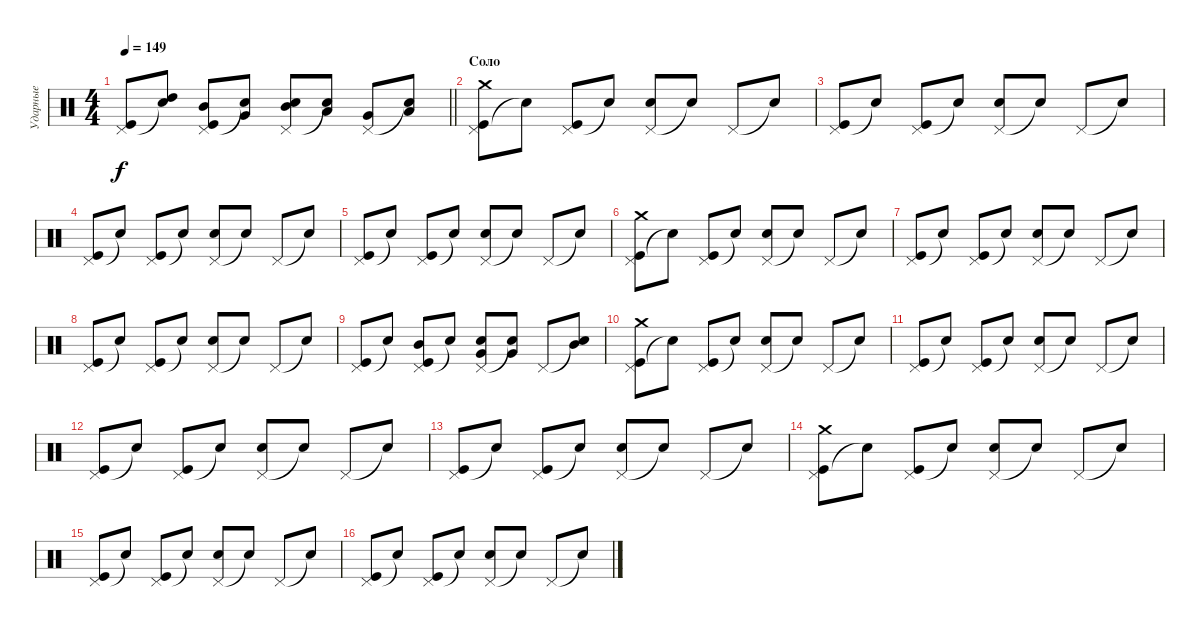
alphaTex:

\track ("Ударные" "Ударные") {instrument percussion}
\staff {score}
\articulation defaults
\ts (4 4)
\tempo 149
\clef neutral
\barLineRight lightlight
\ks c
("Pedal Hi-Hat (hit)" "Kick (hit)").8{dy f} ("Snare (hit)"{t} "High Tom (hit)").8 ("Pedal Hi-Hat (hit)" "Kick (hit)" "Mid Tom (hit)").8 ("Snare (hit)"{t} "Very Low Tom (hit)").8 ("Pedal Hi-Hat (hit)" "Snare (hit) 2" "Mid Tom (hit)").8 ("Snare (hit)"{t} "Low Tom (hit)").8 ("Pedal Hi-Hat (hit)" "Very Low Tom (hit)").8 ("Snare (hit)"{t} "Low Floor Tom (hit)").8 |
\section ("" "Соло")
("Pedal Hi-Hat (hit)" "Kick (hit)" "Crash medium (hit)").8 "Snare (hit)"{t}.8 ("Pedal Hi-Hat (hit)" "Kick (hit)").8 "Snare (hit)"{t}.8 ("Pedal Hi-Hat (hit)" "Snare (hit) 2").8 "Snare (hit)"{t}.8 "Pedal Hi-Hat (hit)".8 "Snare (hit)"{t}.8 |
("Pedal Hi-Hat (hit)" "Kick (hit)").8 "Snare (hit)"{t}.8 ("Pedal Hi-Hat (hit)" "Kick (hit)").8 "Snare (hit)"{t}.8 ("Pedal Hi-Hat (hit)" "Snare (hit) 2").8 "Snare (hit)"{t}.8 "Pedal Hi-Hat (hit)".8 "Snare (hit)"{t}.8 |
("Pedal Hi-Hat (hit)" "Kick (hit)").8 "Snare (hit)"{t}.8 ("Pedal Hi-Hat (hit)" "Kick (hit)").8 "Snare (hit)"{t}.8 ("Pedal Hi-Hat (hit)" "Snare (hit) 2").8 "Snare (hit)"{t}.8 "Pedal Hi-Hat (hit)".8 "Snare (hit)"{t}.8 |
("Pedal Hi-Hat (hit)" "Kick (hit)").8 "Snare (hit)"{t}.8 ("Pedal Hi-Hat (hit)" "Kick (hit)").8 "Snare (hit)"{t}.8 ("Pedal Hi-Hat (hit)" "Snare (hit) 2").8 "Snare (hit)"{t}.8 "Pedal Hi-Hat (hit)".8 "Snare (hit)"{t}.8 |
("Pedal Hi-Hat (hit)" "Kick (hit)" "Crash medium (hit)").8 "Snare (hit)"{t}.8 ("Pedal Hi-Hat (hit)" "Kick (hit)").8 "Snare (hit)"{t}.8 ("Pedal Hi-Hat (hit)" "Snare (hit) 2").8 "Snare (hit)"{t}.8 "Pedal Hi-Hat (hit)".8 "Snare (hit)"{t}.8 |
("Pedal Hi-Hat (hit)" "Kick (hit)").8 "Snare (hit)"{t}.8 ("Pedal Hi-Hat (hit)" "Kick (hit)").8 "Snare (hit)"{t}.8 ("Pedal Hi-Hat (hit)" "Snare (hit) 2").8 "Snare (hit)"{t}.8 "Pedal Hi-Hat (hit)".8 "Snare (hit)"{t}.8 |
("Pedal Hi-Hat (hit)" "Kick (hit)").8 "Snare (hit)"{t}.8 ("Pedal Hi-Hat (hit)" "Kick (hit)").8 "Snare (hit)"{t}.8 ("Pedal Hi-Hat (hit)" "Snare (hit) 2").8 "Snare (hit)"{t}.8 "Pedal Hi-Hat (hit)".8 "Snare (hit)"{t}.8 |
("Pedal Hi-Hat (hit)" "Kick (hit)").8 "Snare (hit)"{t}.8 ("Pedal Hi-Hat (hit)" "Kick (hit)" "Mid Tom (hit)").8 "Snare (hit)"{t}.8 ("Pedal Hi-Hat (hit)" "Snare (hit) 2" "Very Low Tom (hit)").8 ("Snare (hit)"{t} "Very Low Tom (hit)").8 "Pedal Hi-Hat (hit)".8 ("Snare (hit)"{t} "Mid Tom (hit)").8 |
("Pedal Hi-Hat (hit)" "Kick (hit)" "Crash medium (hit)").8 "Snare (hit)"{t}.8 ("Pedal Hi-Hat (hit)" "Kick (hit)").8 "Snare (hit)"{t}.8 ("Pedal Hi-Hat (hit)" "Snare (hit) 2").8 "Snare (hit)"{t}.8 "Pedal Hi-Hat (hit)".8 "Snare (hit)"{t}.8 |
("Pedal Hi-Hat (hit)" "Kick (hit)").8 "Snare (hit)"{t}.8 ("Pedal Hi-Hat (hit)" "Kick (hit)").8 "Snare (hit)"{t}.8 ("Pedal Hi-Hat (hit)" "Snare (hit) 2").8 "Snare (hit)"{t}.8 "Pedal Hi-Hat (hit)".8 "Snare (hit)"{t}.8 |
("Pedal Hi-Hat (hit)" "Kick (hit)").8 "Snare (hit)"{t}.8 ("Pedal Hi-Hat (hit)" "Kick (hit)").8 "Snare (hit)"{t}.8 ("Pedal Hi-Hat (hit)" "Snare (hit) 2").8 "Snare (hit)"{t}.8 "Pedal Hi-Hat (hit)".8 "Snare (hit)"{t}.8 |
("Pedal Hi-Hat (hit)" "Kick (hit)").8 "Snare (hit)"{t}.8 ("Pedal Hi-Hat (hit)" "Kick (hit)").8 "Snare (hit)"{t}.8 ("Pedal Hi-Hat (hit)" "Snare (hit) 2").8 "Snare (hit)"{t}.8 "Pedal Hi-Hat (hit)".8 "Snare (hit)"{t}.8 |
("Pedal Hi-Hat (hit)" "Kick (hit)" "Crash medium (hit)").8 "Snare (hit)"{t}.8 ("Pedal Hi-Hat (hit)" "Kick (hit)").8 "Snare (hit)"{t}.8 ("Pedal Hi-Hat (hit)" "Snare (hit) 2").8 "Snare (hit)"{t}.8 "Pedal Hi-Hat (hit)".8 "Snare (hit)"{t}.8 |
("Pedal Hi-Hat (hit)" "Kick (hit)").8 "Snare (hit)"{t}.8 ("Pedal Hi-Hat (hit)" "Kick (hit)").8 "Snare (hit)"{t}.8 ("Pedal Hi-Hat (hit)" "Snare (hit) 2").8 "Snare (hit)"{t}.8 "Pedal Hi-Hat (hit)".8 "Snare (hit)"{t}.8 |
("Pedal Hi-Hat (hit)" "Kick (hit)").8 "Snare (hit)"{t}.8 ("Pedal Hi-Hat (hit)" "Kick (hit)").8 "Snare (hit)"{t}.8 ("Pedal Hi-Hat (hit)" "Snare (hit) 2").8 "Snare (hit)"{t}.8 "Pedal Hi-Hat (hit)".8 "Snare (hit)"{t}.8
